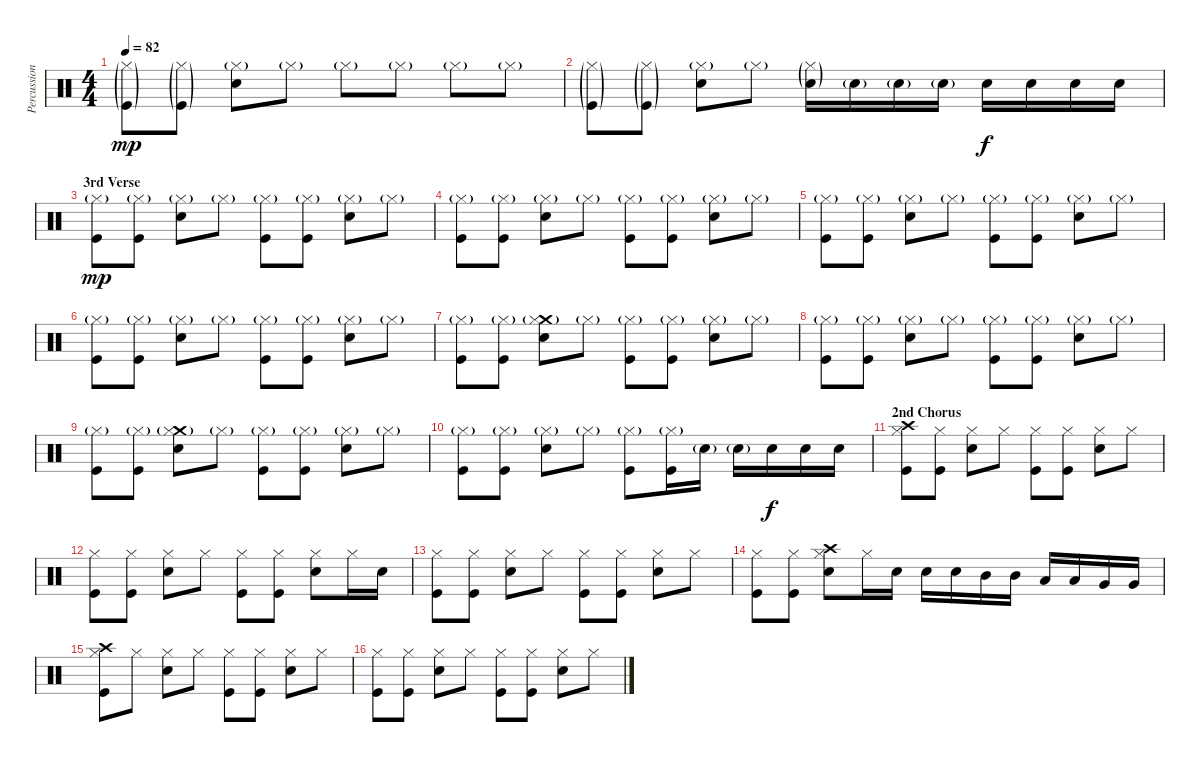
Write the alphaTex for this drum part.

\track ("Percussion" "Percussion") {instrument percussion}
\staff {score}
\articulation defaults
\ts (4 4)
\tempo 82
\clef neutral
\ks c
("Hi-Hat (closed)"{g} "Kick (hit)"{g}).8{dy mp} ("Hi-Hat (closed)"{g} "Kick (hit)"{g}).8 ("Hi-Hat (closed)"{g} "Electric Snare (hit)").8 "Hi-Hat (closed)"{g}.8 "Hi-Hat (closed)"{g}.8 "Hi-Hat (closed)"{g}.8 "Hi-Hat (closed)"{g}.8 "Hi-Hat (closed)"{g}.8 |
("Hi-Hat (closed)"{g} "Kick (hit)"{g}).8 ("Hi-Hat (closed)"{g} "Kick (hit)"{g}).8 ("Hi-Hat (closed)"{g} "Electric Snare (hit)").8 "Hi-Hat (closed)"{g}.8 ("Hi-Hat (closed)"{g} "Electric Snare (hit)"{g}).16 "Electric Snare (hit)"{g}.16 "Electric Snare (hit)"{g}.16 "Electric Snare (hit)"{g}.16 "Electric Snare (hit)".16{dy f} "Electric Snare (hit)".16 "Electric Snare (hit)".16 "Electric Snare (hit)".16 |
\section ("" "3rd Verse")
("Hi-Hat (closed)"{g} "Kick (hit)").8{dy mp} ("Hi-Hat (closed)"{g} "Kick (hit)").8 ("Hi-Hat (closed)"{g} "Electric Snare (hit)").8 "Hi-Hat (closed)"{g}.8 ("Hi-Hat (closed)"{g} "Kick (hit)").8 ("Hi-Hat (closed)"{g} "Kick (hit)").8 ("Hi-Hat (closed)"{g} "Electric Snare (hit)").8 "Hi-Hat (closed)"{g}.8 |
("Hi-Hat (closed)"{g} "Kick (hit)").8 ("Hi-Hat (closed)"{g} "Kick (hit)").8 ("Hi-Hat (closed)"{g} "Electric Snare (hit)").8 "Hi-Hat (closed)"{g}.8 ("Hi-Hat (closed)"{g} "Kick (hit)").8 ("Hi-Hat (closed)"{g} "Kick (hit)").8 ("Hi-Hat (closed)"{g} "Electric Snare (hit)").8 "Hi-Hat (closed)"{g}.8 |
("Hi-Hat (closed)"{g} "Kick (hit)").8 ("Hi-Hat (closed)"{g} "Kick (hit)").8 ("Hi-Hat (closed)"{g} "Electric Snare (hit)").8 "Hi-Hat (closed)"{g}.8 ("Hi-Hat (closed)"{g} "Kick (hit)").8 ("Hi-Hat (closed)"{g} "Kick (hit)").8 ("Hi-Hat (closed)"{g} "Electric Snare (hit)").8 "Hi-Hat (closed)"{g}.8 |
("Hi-Hat (closed)"{g} "Kick (hit)").8 ("Hi-Hat (closed)"{g} "Kick (hit)").8 ("Hi-Hat (closed)"{g} "Electric Snare (hit)").8 "Hi-Hat (closed)"{g}.8 ("Hi-Hat (closed)"{g} "Kick (hit)").8 ("Hi-Hat (closed)"{g} "Kick (hit)").8 ("Hi-Hat (closed)"{g} "Electric Snare (hit)").8 "Hi-Hat (closed)"{g}.8 |
("Hi-Hat (closed)"{g} "Kick (hit)").8 ("Hi-Hat (closed)"{g} "Kick (hit)").8 ("Crash medium (hit)" "Hi-Hat (closed)"{g} "Electric Snare (hit)").8 "Hi-Hat (closed)"{g}.8 ("Hi-Hat (closed)"{g} "Kick (hit)").8 ("Hi-Hat (closed)"{g} "Kick (hit)").8 ("Hi-Hat (closed)"{g} "Electric Snare (hit)").8 "Hi-Hat (closed)"{g}.8 |
("Hi-Hat (closed)"{g} "Kick (hit)").8 ("Hi-Hat (closed)"{g} "Kick (hit)").8 ("Hi-Hat (closed)"{g} "Electric Snare (hit)").8 "Hi-Hat (closed)"{g}.8 ("Hi-Hat (closed)"{g} "Kick (hit)").8 ("Hi-Hat (closed)"{g} "Kick (hit)").8 ("Hi-Hat (closed)"{g} "Electric Snare (hit)").8 "Hi-Hat (closed)"{g}.8 |
("Hi-Hat (closed)"{g} "Kick (hit)").8 ("Hi-Hat (closed)"{g} "Kick (hit)").8 ("Crash medium (hit)" "Hi-Hat (closed)"{g} "Electric Snare (hit)").8 "Hi-Hat (closed)"{g}.8 ("Hi-Hat (closed)"{g} "Kick (hit)").8 ("Hi-Hat (closed)"{g} "Kick (hit)").8 ("Hi-Hat (closed)"{g} "Electric Snare (hit)").8 "Hi-Hat (closed)"{g}.8 |
("Hi-Hat (closed)"{g} "Kick (hit)").8 ("Hi-Hat (closed)"{g} "Kick (hit)").8 ("Hi-Hat (closed)"{g} "Electric Snare (hit)").8 "Hi-Hat (closed)"{g}.8 ("Hi-Hat (closed)"{g} "Kick (hit)").8 ("Hi-Hat (closed)"{g} "Kick (hit)").16 "Electric Snare (hit)"{g}.16 "Electric Snare (hit)"{g}.16 "Electric Snare (hit)".16{dy f} "Electric Snare (hit)".16 "Electric Snare (hit)".16 |
\section ("" "2nd Chorus")
("Crash high (hit)" "Hi-Hat (closed)" "Kick (hit)").8 ("Hi-Hat (closed)" "Kick (hit)").8 ("Hi-Hat (closed)" "Electric Snare (hit)").8 "Hi-Hat (closed)".8 ("Hi-Hat (closed)" "Kick (hit)").8 ("Hi-Hat (closed)" "Kick (hit)").8 ("Hi-Hat (closed)" "Electric Snare (hit)").8 "Hi-Hat (closed)".8 |
("Hi-Hat (closed)" "Kick (hit)").8 ("Hi-Hat (closed)" "Kick (hit)").8 ("Hi-Hat (closed)" "Electric Snare (hit)").8 "Hi-Hat (closed)".8 ("Hi-Hat (closed)" "Kick (hit)").8 ("Hi-Hat (closed)" "Kick (hit)").8 ("Hi-Hat (closed)" "Electric Snare (hit)").8 "Hi-Hat (closed)".16 "Electric Snare (hit)".16 |
("Hi-Hat (closed)" "Kick (hit)").8 ("Hi-Hat (closed)" "Kick (hit)").8 ("Hi-Hat (closed)" "Electric Snare (hit)").8 "Hi-Hat (closed)".8 ("Hi-Hat (closed)" "Kick (hit)").8 ("Hi-Hat (closed)" "Kick (hit)").8 ("Hi-Hat (closed)" "Electric Snare (hit)").8 "Hi-Hat (closed)".8 |
("Hi-Hat (closed)" "Kick (hit)").8 ("Hi-Hat (closed)" "Kick (hit)").8 ("Crash high (hit)" "Hi-Hat (closed)" "Electric Snare (hit)").8 "Hi-Hat (closed)".16 "Electric Snare (hit)".16 "Electric Snare (hit)".16 "Electric Snare (hit)".16 "Mid Tom (hit)".16 "Mid Tom (hit)".16 "Low Tom (hit)".16 "Low Tom (hit)".16 "Very Low Tom (hit)".16 "Very Low Tom (hit)".16 |
("Crash high (hit)" "Hi-Hat (closed)" "Kick (hit)").8 "Hi-Hat (closed)".8 ("Hi-Hat (closed)" "Electric Snare (hit)").8 "Hi-Hat (closed)".8 ("Hi-Hat (closed)" "Kick (hit)").8 ("Hi-Hat (closed)" "Kick (hit)").8 ("Hi-Hat (closed)" "Electric Snare (hit)").8 "Hi-Hat (closed)".8 |
("Hi-Hat (closed)" "Kick (hit)").8 ("Hi-Hat (closed)" "Kick (hit)").8 ("Hi-Hat (closed)" "Electric Snare (hit)").8 "Hi-Hat (closed)".8 ("Hi-Hat (closed)" "Kick (hit)").8 ("Hi-Hat (closed)" "Kick (hit)").8 ("Hi-Hat (closed)" "Electric Snare (hit)").8 "Hi-Hat (closed)".8
